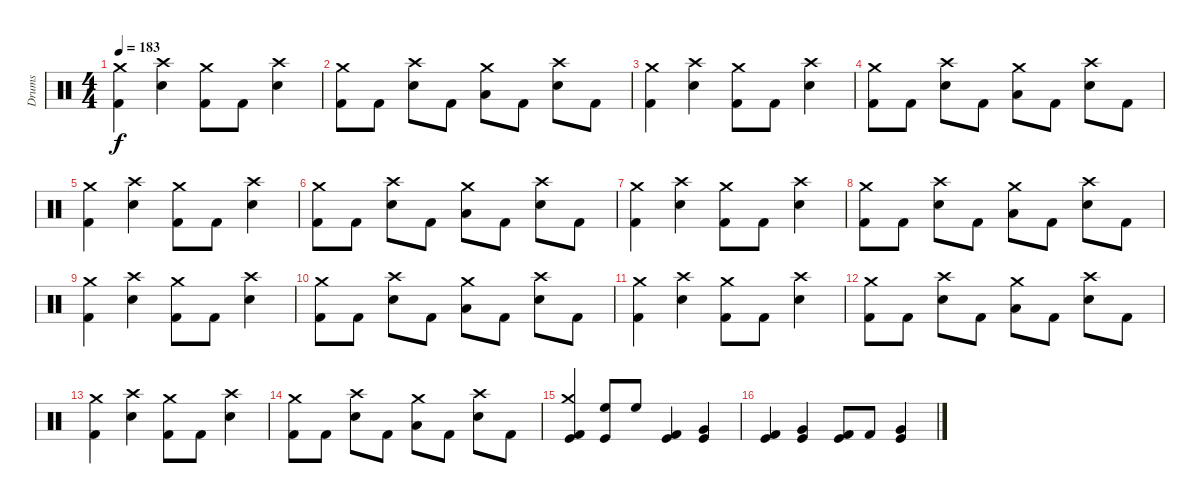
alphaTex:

\track ("Drums" "Drums") {instrument percussion}
\staff {score}
\articulation defaults
\ts (4 4)
\tempo 183
\clef neutral
\ks c
("Kick (hit) 2" "Crash medium (hit)").4{dy f} ("Snare (hit) 2" "Crash high (hit)").4 ("Kick (hit) 2" "Crash medium (hit)").8 "Kick (hit) 2".8 ("Snare (hit) 2" "Crash high (hit)").4 |
("Kick (hit) 2" "Crash medium (hit)").8 "Kick (hit) 2".8 ("Snare (hit) 2" "Crash high (hit)").8 "Kick (hit) 2".8 ("Low Tom (hit)" "Crash medium (hit)").8 "Kick (hit) 2".8 ("Snare (hit) 2" "Crash high (hit)").8 "Kick (hit) 2".8 |
("Kick (hit) 2" "Crash medium (hit)").4 ("Snare (hit) 2" "Crash high (hit)").4 ("Kick (hit) 2" "Crash medium (hit)").8 "Kick (hit) 2".8 ("Snare (hit) 2" "Crash high (hit)").4 |
("Kick (hit) 2" "Crash medium (hit)").8 "Kick (hit) 2".8 ("Snare (hit) 2" "Crash high (hit)").8 "Kick (hit) 2".8 ("Low Tom (hit)" "Crash medium (hit)").8 "Kick (hit) 2".8 ("Snare (hit) 2" "Crash high (hit)").8 "Kick (hit) 2".8 |
("Kick (hit) 2" "Crash medium (hit)").4 ("Snare (hit) 2" "Crash high (hit)").4 ("Kick (hit) 2" "Crash medium (hit)").8 "Kick (hit) 2".8 ("Snare (hit) 2" "Crash high (hit)").4 |
("Kick (hit) 2" "Crash medium (hit)").8 "Kick (hit) 2".8 ("Snare (hit) 2" "Crash high (hit)").8 "Kick (hit) 2".8 ("Low Tom (hit)" "Crash medium (hit)").8 "Kick (hit) 2".8 ("Snare (hit) 2" "Crash high (hit)").8 "Kick (hit) 2".8 |
("Crash medium (hit)" "Kick (hit) 2").4 ("Snare (hit) 2" "Crash high (hit)").4 ("Kick (hit) 2" "Crash medium (hit)").8 "Kick (hit) 2".8 ("Snare (hit) 2" "Crash high (hit)").4 |
("Kick (hit) 2" "Crash medium (hit)").8 "Kick (hit) 2".8 ("Snare (hit) 2" "Crash high (hit)").8 "Kick (hit) 2".8 ("Low Tom (hit)" "Crash medium (hit)").8 "Kick (hit) 2".8 ("Snare (hit) 2" "Crash high (hit)").8 "Kick (hit) 2".8 |
("Kick (hit) 2" "Crash medium (hit)").4 ("Snare (hit) 2" "Crash high (hit)").4 ("Kick (hit) 2" "Crash medium (hit)").8 "Kick (hit) 2".8 ("Snare (hit) 2" "Crash high (hit)").4 |
("Kick (hit) 2" "Crash medium (hit)").8 "Kick (hit) 2".8 ("Snare (hit) 2" "Crash high (hit)").8 "Kick (hit) 2".8 ("Low Tom (hit)" "Crash medium (hit)").8 "Kick (hit) 2".8 ("Snare (hit) 2" "Crash high (hit)").8 "Kick (hit) 2".8 |
("Kick (hit) 2" "Crash medium (hit)").4 ("Snare (hit) 2" "Crash high (hit)").4 ("Kick (hit) 2" "Crash medium (hit)").8 "Kick (hit) 2".8 ("Snare (hit) 2" "Crash high (hit)").4 |
("Kick (hit) 2" "Crash medium (hit)").8 "Kick (hit) 2".8 ("Snare (hit) 2" "Crash high (hit)").8 "Kick (hit) 2".8 ("Low Tom (hit)" "Crash medium (hit)").8 "Kick (hit) 2".8 ("Snare (hit) 2" "Crash high (hit)").8 "Kick (hit) 2".8 |
("Kick (hit) 2" "Crash medium (hit)").4 ("Snare (hit) 2" "Crash high (hit)").4 ("Kick (hit) 2" "Crash medium (hit)").8 "Kick (hit) 2".8 ("Snare (hit) 2" "Crash high (hit)").4 |
("Kick (hit) 2" "Crash medium (hit)").8 "Kick (hit) 2".8 ("Snare (hit) 2" "Crash high (hit)").8 "Kick (hit) 2".8 ("Low Tom (hit)" "Crash medium (hit)").8 "Kick (hit) 2".8 ("Snare (hit) 2" "Crash high (hit)").8 "Kick (hit) 2".8 |
("Kick (hit)" "Crash medium (hit)" "Kick (hit) 2").4 ("Kick (hit)" "High Floor Tom (hit)").8 "High Floor Tom (hit)".8 ("Kick (hit)" "Kick (hit) 2").4 ("Kick (hit)" "Very Low Tom (hit)").4 |
("Kick (hit)" "Kick (hit) 2").4 ("Kick (hit)" "Very Low Tom (hit)").4 ("Kick (hit)" "Kick (hit) 2").8 "Kick (hit) 2".8 ("Kick (hit)" "Very Low Tom (hit)").4
